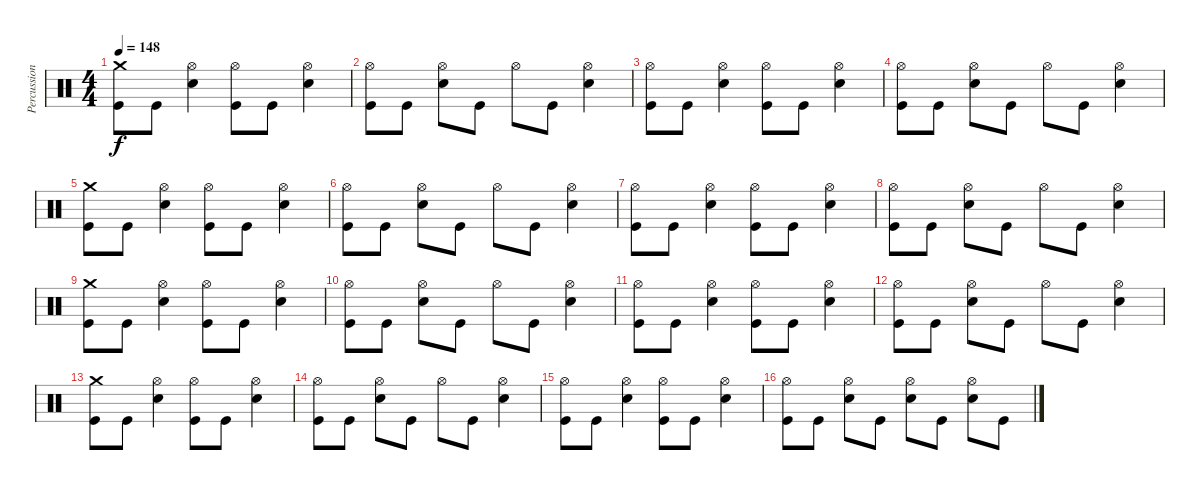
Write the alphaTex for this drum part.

\track ("Percussion" "Percussion") {instrument percussion}
\staff {score}
\articulation defaults
\ts (4 4)
\tempo 148
\clef neutral
\ks c
("Crash medium (hit)" "Kick (hit)").8{dy f} "Kick (hit)".8 ("Hi-Hat (open)" "Electric Snare (hit)").4 ("Hi-Hat (open)" "Kick (hit)").8 "Kick (hit)".8 ("Hi-Hat (open)" "Electric Snare (hit)").4 |
("Hi-Hat (open)" "Kick (hit)").8 "Kick (hit)".8 ("Hi-Hat (open)" "Electric Snare (hit)").8 "Kick (hit)".8 "Hi-Hat (open)".8 "Kick (hit)".8 ("Hi-Hat (open)" "Electric Snare (hit)").4 |
("Hi-Hat (open)" "Kick (hit)").8 "Kick (hit)".8 ("Hi-Hat (open)" "Electric Snare (hit)").4 ("Hi-Hat (open)" "Kick (hit)").8 "Kick (hit)".8 ("Hi-Hat (open)" "Electric Snare (hit)").4 |
("Hi-Hat (open)" "Kick (hit)").8 "Kick (hit)".8 ("Hi-Hat (open)" "Electric Snare (hit)").8 "Kick (hit)".8 "Hi-Hat (open)".8 "Kick (hit)".8 ("Hi-Hat (open)" "Electric Snare (hit)").4 |
("Crash medium (hit)" "Kick (hit)").8 "Kick (hit)".8 ("Hi-Hat (open)" "Electric Snare (hit)").4 ("Hi-Hat (open)" "Kick (hit)").8 "Kick (hit)".8 ("Hi-Hat (open)" "Electric Snare (hit)").4 |
("Hi-Hat (open)" "Kick (hit)").8 "Kick (hit)".8 ("Hi-Hat (open)" "Electric Snare (hit)").8 "Kick (hit)".8 "Hi-Hat (open)".8 "Kick (hit)".8 ("Hi-Hat (open)" "Electric Snare (hit)").4 |
("Hi-Hat (open)" "Kick (hit)").8 "Kick (hit)".8 ("Hi-Hat (open)" "Electric Snare (hit)").4 ("Hi-Hat (open)" "Kick (hit)").8 "Kick (hit)".8 ("Hi-Hat (open)" "Electric Snare (hit)").4 |
("Hi-Hat (open)" "Kick (hit)").8 "Kick (hit)".8 ("Hi-Hat (open)" "Electric Snare (hit)").8 "Kick (hit)".8 "Hi-Hat (open)".8 "Kick (hit)".8 ("Hi-Hat (open)" "Electric Snare (hit)").4 |
("Crash medium (hit)" "Kick (hit)").8 "Kick (hit)".8 ("Hi-Hat (open)" "Electric Snare (hit)").4 ("Hi-Hat (open)" "Kick (hit)").8 "Kick (hit)".8 ("Hi-Hat (open)" "Electric Snare (hit)").4 |
("Hi-Hat (open)" "Kick (hit)").8 "Kick (hit)".8 ("Hi-Hat (open)" "Electric Snare (hit)").8 "Kick (hit)".8 "Hi-Hat (open)".8 "Kick (hit)".8 ("Hi-Hat (open)" "Electric Snare (hit)").4 |
("Hi-Hat (open)" "Kick (hit)").8 "Kick (hit)".8 ("Hi-Hat (open)" "Electric Snare (hit)").4 ("Hi-Hat (open)" "Kick (hit)").8 "Kick (hit)".8 ("Hi-Hat (open)" "Electric Snare (hit)").4 |
("Hi-Hat (open)" "Kick (hit)").8 "Kick (hit)".8 ("Hi-Hat (open)" "Electric Snare (hit)").8 "Kick (hit)".8 "Hi-Hat (open)".8 "Kick (hit)".8 ("Hi-Hat (open)" "Electric Snare (hit)").4 |
("Crash medium (hit)" "Kick (hit)").8 "Kick (hit)".8 ("Hi-Hat (open)" "Electric Snare (hit)").4 ("Hi-Hat (open)" "Kick (hit)").8 "Kick (hit)".8 ("Hi-Hat (open)" "Electric Snare (hit)").4 |
("Hi-Hat (open)" "Kick (hit)").8 "Kick (hit)".8 ("Hi-Hat (open)" "Electric Snare (hit)").8 "Kick (hit)".8 "Hi-Hat (open)".8 "Kick (hit)".8 ("Hi-Hat (open)" "Electric Snare (hit)").4 |
("Hi-Hat (open)" "Kick (hit)").8 "Kick (hit)".8 ("Hi-Hat (open)" "Electric Snare (hit)").4 ("Hi-Hat (open)" "Kick (hit)").8 "Kick (hit)".8 ("Hi-Hat (open)" "Electric Snare (hit)").4 |
("Hi-Hat (open)" "Kick (hit)").8 "Kick (hit)".8 ("Hi-Hat (open)" "Electric Snare (hit)").8 "Kick (hit)".8 ("Hi-Hat (open)" "Electric Snare (hit)").8 "Kick (hit)".8 ("Hi-Hat (open)" "Electric Snare (hit)").8 "Kick (hit)".8
